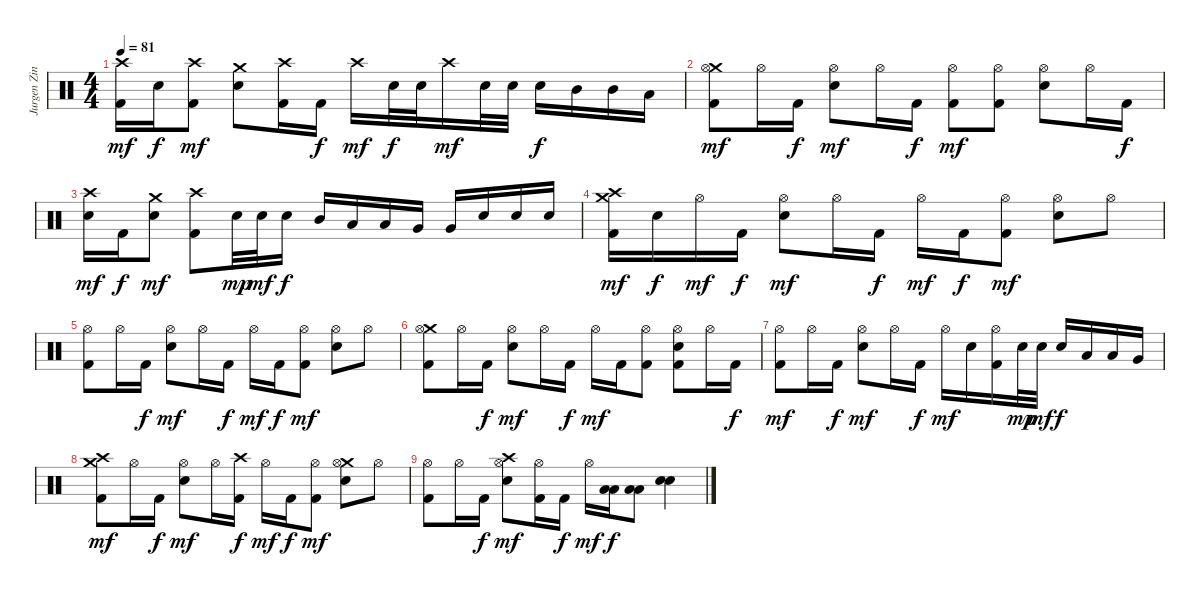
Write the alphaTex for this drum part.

\track ("Jurgen Zing" "Jurgen Zin") {instrument percussion}
\staff {score}
\articulation defaults
\ts (4 4)
\tempo 81
\clef neutral
\ks c
("Crash high (hit)" "Kick (hit) 2").16{dy mf} "Electric Snare (hit)".16{dy f} ("Crash high (hit)" "Kick (hit) 2").8{dy mf} ("Crash medium (hit)" "Electric Snare (hit)").8 ("Crash high (hit)" "Kick (hit) 2").16 "Kick (hit) 2".16{dy f} "Crash high (hit)".16{dy mf} "Electric Snare (hit)".32{dy f} "Electric Snare (hit)".32 "Crash high (hit)".16{dy mf} "Electric Snare (hit)".32 "Electric Snare (hit)".32 "Electric Snare (hit)".16{dy f} "Mid Tom (hit)".16 "Mid Tom (hit)".16 "Low Tom (hit)".16 |
("Crash medium (hit)" "Hi-Hat (open)" "Kick (hit) 2").8{dy mf} "Hi-Hat (open)".16 "Kick (hit) 2".16{dy f} ("Hi-Hat (open)" "Electric Snare (hit)").8{dy mf} "Hi-Hat (open)".16 "Kick (hit) 2".16{dy f} ("Hi-Hat (open)" "Kick (hit) 2").8{dy mf} ("Hi-Hat (open)" "Kick (hit) 2").8 ("Hi-Hat (open)" "Electric Snare (hit)").8 "Hi-Hat (open)".16 "Kick (hit) 2".16{dy f} |
("Crash high (hit)" "Electric Snare (hit)").16{dy mf} "Kick (hit) 2".16{dy f} ("Crash medium (hit)" "Electric Snare (hit)").8{dy mf} ("Crash high (hit)" "Kick (hit) 2").8 "Electric Snare (hit)".32{dy mp} "Electric Snare (hit)".32{dy mf} "Electric Snare (hit)".16{dy f} "Mid Tom (hit)".16 "Low Tom (hit)".16 "Low Tom (hit)".16 "Very Low Tom (hit)".16 "Very Low Tom (hit)".16 "Electric Snare (hit)".16 "Electric Snare (hit)".16 "Electric Snare (hit)".16 |
("Crash medium (hit)" "Crash high (hit)" "Kick (hit) 2").16{dy mf} "Electric Snare (hit)".16{dy f} "Hi-Hat (open)".16{dy mf} "Kick (hit) 2".16{dy f} ("Hi-Hat (open)" "Electric Snare (hit)").8{dy mf} "Hi-Hat (open)".16 "Kick (hit) 2".16{dy f} "Hi-Hat (open)".16{dy mf} "Kick (hit) 2".16{dy f} ("Hi-Hat (open)" "Kick (hit) 2").8{dy mf} ("Hi-Hat (open)" "Electric Snare (hit)").8 "Hi-Hat (open)".8 |
("Hi-Hat (open)" "Kick (hit) 2").8 "Hi-Hat (open)".16 "Kick (hit) 2".16{dy f} ("Hi-Hat (open)" "Electric Snare (hit)").8{dy mf} "Hi-Hat (open)".16 "Kick (hit) 2".16{dy f} "Hi-Hat (open)".16{dy mf} "Kick (hit) 2".16{dy f} ("Hi-Hat (open)" "Kick (hit) 2").8{dy mf} ("Hi-Hat (open)" "Electric Snare (hit)").8 "Hi-Hat (open)".8 |
("Crash medium (hit)" "Hi-Hat (open)" "Kick (hit) 2").8 "Hi-Hat (open)".16 "Kick (hit) 2".16{dy f} ("Hi-Hat (open)" "Electric Snare (hit)").8{dy mf} "Hi-Hat (open)".16 "Kick (hit) 2".16{dy f} "Hi-Hat (open)".16{dy mf} "Kick (hit) 2".16 ("Hi-Hat (open)" "Kick (hit) 2").8 ("Hi-Hat (open)" "Electric Snare (hit)" "Kick (hit) 2").8 "Hi-Hat (open)".16 "Kick (hit) 2".16{dy f} |
("Hi-Hat (open)" "Kick (hit) 2").8{dy mf} "Hi-Hat (open)".16 "Kick (hit) 2".16{dy f} ("Hi-Hat (open)" "Electric Snare (hit)").8{dy mf} "Hi-Hat (open)".16 "Kick (hit) 2".16{dy f} "Hi-Hat (open)".16{dy mf} "Electric Snare (hit)".16 ("Hi-Hat (open)" "Kick (hit) 2").16 "Electric Snare (hit)".32{dy mp} "Electric Snare (hit)".32{dy mf} "Electric Snare (hit)".16{dy f} "Low Tom (hit)".16 "Low Tom (hit)".16 "Very Low Tom (hit)".16 |
("Crash medium (hit)" "Crash high (hit)" "Kick (hit) 2").8{dy mf} "Hi-Hat (open)".16 "Kick (hit) 2".16{dy f} ("Hi-Hat (open)" "Electric Snare (hit)").8{dy mf} "Hi-Hat (open)".16 ("Crash high (hit)" "Kick (hit) 2").16{dy f} "Hi-Hat (open)".16{dy mf} "Kick (hit) 2".16{dy f} ("Hi-Hat (open)" "Kick (hit) 2").8{dy mf} ("Crash medium (hit)" "Hi-Hat (open)" "Electric Snare (hit)").8 "Hi-Hat (open)".8 |
("Hi-Hat (open)" "Kick (hit) 2").8 "Hi-Hat (open)".16 "Kick (hit) 2".16{dy f} ("Crash high (hit)" "Hi-Hat (open)" "Electric Snare (hit)").8{dy mf} ("Hi-Hat (open)" "Kick (hit) 2").16 "Kick (hit) 2".16{dy f} "Hi-Hat (open)".16{dy mf} ("Low Tom (hit)" "Low Tom (hit)").16{dy f} ("Low Tom (hit)" "Low Tom (hit)").8 ("Electric Snare (hit)" "Electric Snare (hit)").4
